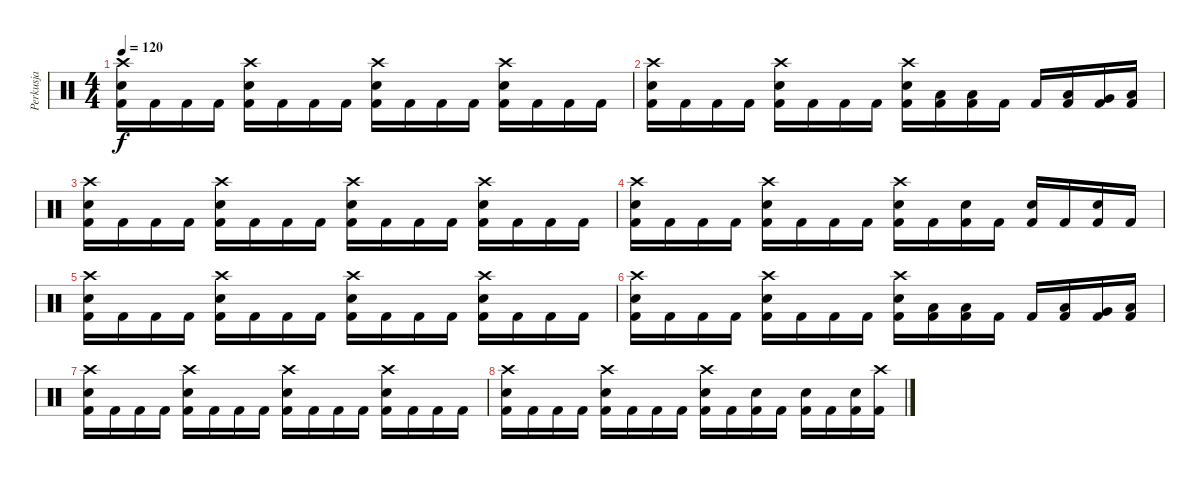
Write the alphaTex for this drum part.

\track ("Perkusja" "Perkusja") {instrument percussion}
\staff {score}
\articulation defaults
\ts (4 4)
\tempo 120
\clef neutral
\ks c
("Crash high (hit)" "Electric Snare (hit)" "Kick (hit) 2").16{dy f} "Kick (hit) 2".16 "Kick (hit) 2".16 "Kick (hit) 2".16 ("Crash high (hit)" "Electric Snare (hit)" "Kick (hit) 2").16 "Kick (hit) 2".16 "Kick (hit) 2".16 "Kick (hit) 2".16 ("Crash high (hit)" "Electric Snare (hit)" "Kick (hit) 2").16 "Kick (hit) 2".16 "Kick (hit) 2".16 "Kick (hit) 2".16 ("Crash high (hit)" "Electric Snare (hit)" "Kick (hit) 2").16 "Kick (hit) 2".16 "Kick (hit) 2".16 "Kick (hit) 2".16 |
("Crash high (hit)" "Electric Snare (hit)" "Kick (hit) 2").16 "Kick (hit) 2".16 "Kick (hit) 2".16 "Kick (hit) 2".16 ("Crash high (hit)" "Electric Snare (hit)" "Kick (hit) 2").16 "Kick (hit) 2".16 "Kick (hit) 2".16 "Kick (hit) 2".16 ("Crash high (hit)" "Electric Snare (hit)" "Kick (hit) 2").16 ("Low Floor Tom (hit)" "Kick (hit) 2").16 ("Low Floor Tom (hit)" "Kick (hit) 2").16 "Kick (hit) 2".16 "Kick (hit) 2".16 ("Low Floor Tom (hit)" "Kick (hit) 2").16 ("Very Low Tom (hit)" "Kick (hit) 2").16 ("Low Floor Tom (hit)" "Kick (hit) 2").16 |
("Crash high (hit)" "Electric Snare (hit)" "Kick (hit) 2").16 "Kick (hit) 2".16 "Kick (hit) 2".16 "Kick (hit) 2".16 ("Crash high (hit)" "Electric Snare (hit)" "Kick (hit) 2").16 "Kick (hit) 2".16 "Kick (hit) 2".16 "Kick (hit) 2".16 ("Crash high (hit)" "Electric Snare (hit)" "Kick (hit) 2").16 "Kick (hit) 2".16 "Kick (hit) 2".16 "Kick (hit) 2".16 ("Crash high (hit)" "Electric Snare (hit)" "Kick (hit) 2").16 "Kick (hit) 2".16 "Kick (hit) 2".16 "Kick (hit) 2".16 |
("Crash high (hit)" "Electric Snare (hit)" "Kick (hit) 2").16 "Kick (hit) 2".16 "Kick (hit) 2".16 "Kick (hit) 2".16 ("Crash high (hit)" "Electric Snare (hit)" "Kick (hit) 2").16 "Kick (hit) 2".16 "Kick (hit) 2".16 "Kick (hit) 2".16 ("Crash high (hit)" "Electric Snare (hit)" "Kick (hit) 2").16 "Kick (hit) 2".16 ("Electric Snare (hit)" "Kick (hit) 2").16 "Kick (hit) 2".16 ("Electric Snare (hit)" "Kick (hit) 2").16 "Kick (hit) 2".16 ("Electric Snare (hit)" "Kick (hit) 2").16 "Kick (hit) 2".16 |
("Crash high (hit)" "Electric Snare (hit)" "Kick (hit) 2").16 "Kick (hit) 2".16 "Kick (hit) 2".16 "Kick (hit) 2".16 ("Crash high (hit)" "Electric Snare (hit)" "Kick (hit) 2").16 "Kick (hit) 2".16 "Kick (hit) 2".16 "Kick (hit) 2".16 ("Crash high (hit)" "Electric Snare (hit)" "Kick (hit) 2").16 "Kick (hit) 2".16 "Kick (hit) 2".16 "Kick (hit) 2".16 ("Crash high (hit)" "Electric Snare (hit)" "Kick (hit) 2").16 "Kick (hit) 2".16 "Kick (hit) 2".16 "Kick (hit) 2".16 |
("Crash high (hit)" "Electric Snare (hit)" "Kick (hit) 2").16 "Kick (hit) 2".16 "Kick (hit) 2".16 "Kick (hit) 2".16 ("Crash high (hit)" "Electric Snare (hit)" "Kick (hit) 2").16 "Kick (hit) 2".16 "Kick (hit) 2".16 "Kick (hit) 2".16 ("Crash high (hit)" "Electric Snare (hit)" "Kick (hit) 2").16 ("Low Floor Tom (hit)" "Kick (hit) 2").16 ("Low Floor Tom (hit)" "Kick (hit) 2").16 "Kick (hit) 2".16 "Kick (hit) 2".16 ("Low Floor Tom (hit)" "Kick (hit) 2").16 ("Very Low Tom (hit)" "Kick (hit) 2").16 ("Low Floor Tom (hit)" "Kick (hit) 2").16 |
("Crash high (hit)" "Electric Snare (hit)" "Kick (hit) 2").16 "Kick (hit) 2".16 "Kick (hit) 2".16 "Kick (hit) 2".16 ("Crash high (hit)" "Electric Snare (hit)" "Kick (hit) 2").16 "Kick (hit) 2".16 "Kick (hit) 2".16 "Kick (hit) 2".16 ("Crash high (hit)" "Electric Snare (hit)" "Kick (hit) 2").16 "Kick (hit) 2".16 "Kick (hit) 2".16 "Kick (hit) 2".16 ("Crash high (hit)" "Electric Snare (hit)" "Kick (hit) 2").16 "Kick (hit) 2".16 "Kick (hit) 2".16 "Kick (hit) 2".16 |
("Crash high (hit)" "Electric Snare (hit)" "Kick (hit) 2").16 "Kick (hit) 2".16 "Kick (hit) 2".16 "Kick (hit) 2".16 ("Crash high (hit)" "Electric Snare (hit)" "Kick (hit) 2").16 "Kick (hit) 2".16 "Kick (hit) 2".16 "Kick (hit) 2".16 ("Crash high (hit)" "Electric Snare (hit)" "Kick (hit) 2").16 "Kick (hit) 2".16 ("Electric Snare (hit)" "Kick (hit) 2").16 "Kick (hit) 2".16 ("Electric Snare (hit)" "Kick (hit) 2").16 "Kick (hit) 2".16 ("Electric Snare (hit)" "Kick (hit) 2").16 ("Crash high (hit)" "Kick (hit) 2").16
